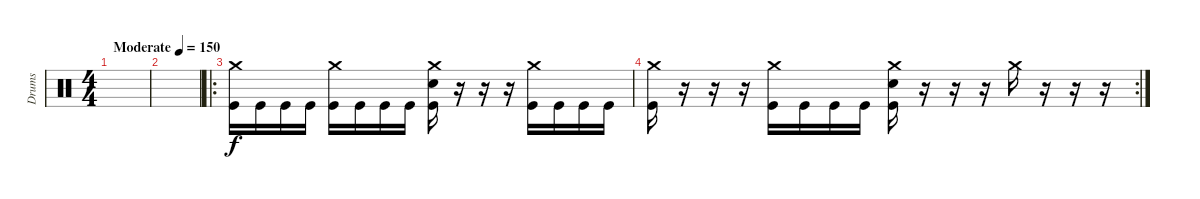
\track ("Drums" "Drums") {instrument percussion}
\staff {score}
\articulation defaults
\ts (4 4)
\tempo (150 "Moderate")
\clef neutral
\ks c
|
|
\ro
("Crash medium (hit)" "Kick (hit)").16 "Kick (hit)".16 "Kick (hit)".16 "Kick (hit)".16 ("Crash medium (hit)" "Kick (hit)").16 "Kick (hit)".16 "Kick (hit)".16 "Kick (hit)".16 ("Crash medium (hit)" "Snare (hit) 2" "Kick (hit)").16 r.16 r.16 r.16 ("Crash medium (hit)" "Kick (hit)").16 "Kick (hit)".16 "Kick (hit)".16 "Kick (hit)".16 |
\rc 2
("Crash medium (hit)" "Kick (hit)").16 r.16 r.16 r.16 ("Crash medium (hit)" "Kick (hit)").16 "Kick (hit)".16 "Kick (hit)".16 "Kick (hit)".16 ("Crash medium (hit)" "Snare (hit) 2" "Kick (hit)").16 r.16 r.16 r.16 "Crash medium (hit)".16 r.16 r.16 r.16
